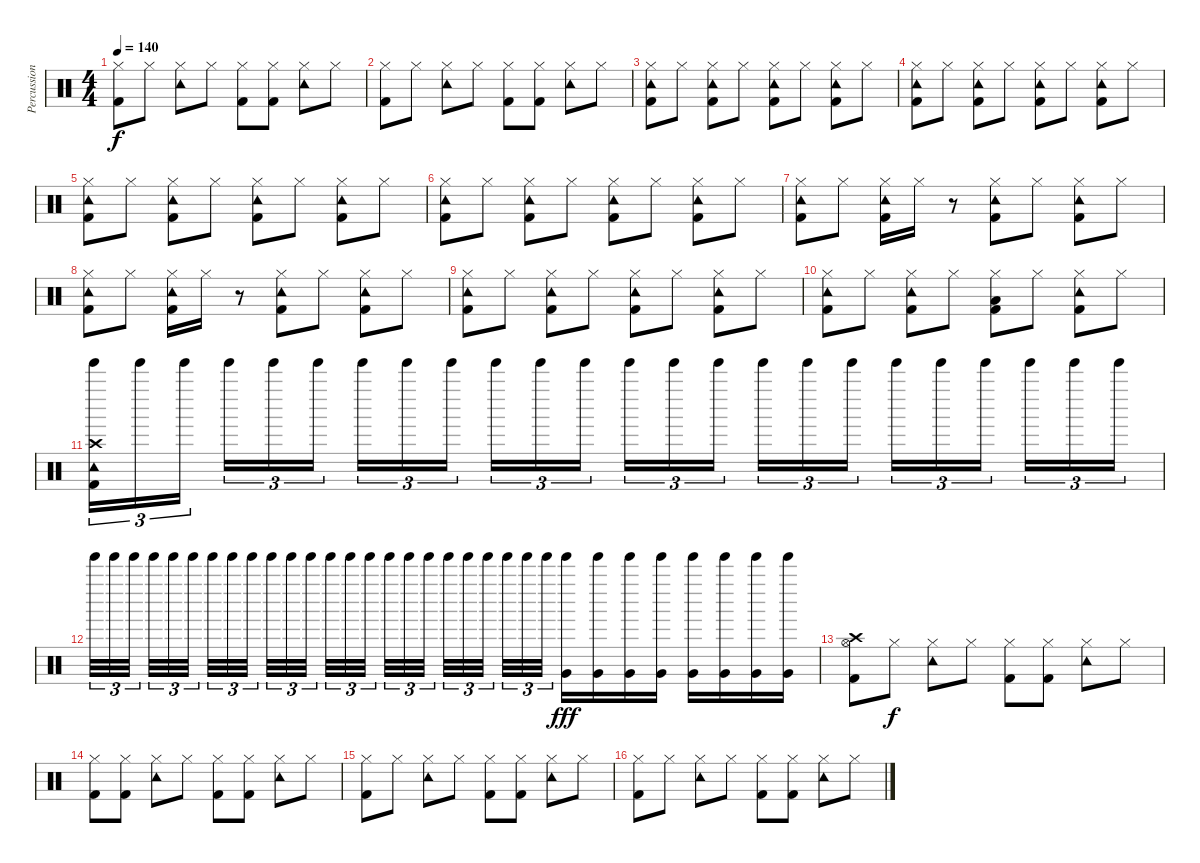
\track ("Percussion" "Percussion") {instrument percussion}
\staff {score}
\articulation defaults
\ts (4 4)
\tempo 140
\clef neutral
\ks c
("Hi-Hat (closed)" "Kick (hit) 2").8{dy f} "Hi-Hat (closed)".8 ("Hi-Hat (closed)" "Tambourine (hit)").8 "Hi-Hat (closed)".8 ("Hi-Hat (closed)" "Kick (hit) 2").8 ("Hi-Hat (closed)" "Kick (hit) 2").8 ("Hi-Hat (closed)" "Tambourine (hit)").8 "Hi-Hat (closed)".8 |
("Hi-Hat (closed)" "Kick (hit) 2").8 "Hi-Hat (closed)".8 ("Hi-Hat (closed)" "Tambourine (hit)").8 "Hi-Hat (closed)".8 ("Hi-Hat (closed)" "Kick (hit) 2").8 ("Hi-Hat (closed)" "Kick (hit) 2").8 ("Hi-Hat (closed)" "Tambourine (hit)").8 "Hi-Hat (closed)".8 |
("Hi-Hat (closed)" "Tambourine (hit)" "Kick (hit) 2").8 "Hi-Hat (closed)".8 ("Hi-Hat (closed)" "Tambourine (hit)" "Kick (hit) 2").8 "Hi-Hat (closed)".8 ("Hi-Hat (closed)" "Tambourine (hit)" "Kick (hit) 2").8 "Hi-Hat (closed)".8 ("Hi-Hat (closed)" "Tambourine (hit)" "Kick (hit) 2").8 "Hi-Hat (closed)".8 |
("Hi-Hat (closed)" "Tambourine (hit)" "Kick (hit) 2").8 "Hi-Hat (closed)".8 ("Hi-Hat (closed)" "Tambourine (hit)" "Kick (hit) 2").8 "Hi-Hat (closed)".8 ("Hi-Hat (closed)" "Tambourine (hit)" "Kick (hit) 2").8 "Hi-Hat (closed)".8 ("Hi-Hat (closed)" "Tambourine (hit)" "Kick (hit) 2").8 "Hi-Hat (closed)".8 |
("Hi-Hat (closed)" "Tambourine (hit)" "Kick (hit) 2").8 "Hi-Hat (closed)".8 ("Hi-Hat (closed)" "Tambourine (hit)" "Kick (hit) 2").8 "Hi-Hat (closed)".8 ("Hi-Hat (closed)" "Tambourine (hit)" "Kick (hit) 2").8 "Hi-Hat (closed)".8 ("Hi-Hat (closed)" "Tambourine (hit)" "Kick (hit) 2").8 "Hi-Hat (closed)".8 |
("Hi-Hat (closed)" "Tambourine (hit)" "Kick (hit) 2").8 "Hi-Hat (closed)".8 ("Hi-Hat (closed)" "Tambourine (hit)" "Kick (hit) 2").8 "Hi-Hat (closed)".8 ("Hi-Hat (closed)" "Tambourine (hit)" "Kick (hit) 2").8 "Hi-Hat (closed)".8 ("Hi-Hat (closed)" "Tambourine (hit)" "Kick (hit) 2").8 "Hi-Hat (closed)".8 |
("Hi-Hat (closed)" "Tambourine (hit)" "Kick (hit) 2").8 "Hi-Hat (closed)".8 ("Hi-Hat (closed)" "Tambourine (hit)" "Kick (hit) 2").16 "Hi-Hat (closed)".16 r.8 ("Hi-Hat (closed)" "Tambourine (hit)" "Kick (hit) 2").8 "Hi-Hat (closed)".8 ("Hi-Hat (closed)" "Tambourine (hit)" "Kick (hit) 2").8 "Hi-Hat (closed)".8 |
("Hi-Hat (closed)" "Tambourine (hit)" "Kick (hit) 2").8 "Hi-Hat (closed)".8 ("Hi-Hat (closed)" "Tambourine (hit)" "Kick (hit) 2").16 "Hi-Hat (closed)".16 r.8 ("Hi-Hat (closed)" "Tambourine (hit)" "Kick (hit) 2").8 "Hi-Hat (closed)".8 ("Hi-Hat (closed)" "Tambourine (hit)" "Kick (hit) 2").8 "Hi-Hat (closed)".8 |
("Hi-Hat (closed)" "Tambourine (hit)" "Kick (hit) 2").8 "Hi-Hat (closed)".8 ("Hi-Hat (closed)" "Tambourine (hit)" "Kick (hit) 2").8 "Hi-Hat (closed)".8 ("Hi-Hat (closed)" "Tambourine (hit)" "Kick (hit) 2").8 "Hi-Hat (closed)".8 ("Hi-Hat (closed)" "Tambourine (hit)" "Kick (hit) 2").8 "Hi-Hat (closed)".8 |
("Hi-Hat (closed)" "Tambourine (hit)" "Kick (hit) 2").8 "Hi-Hat (closed)".8 ("Hi-Hat (closed)" "Tambourine (hit)" "Kick (hit) 2").8 "Hi-Hat (closed)".8 ("Hi-Hat (closed)" "Low Tom (hit)" "Kick (hit) 2").8 "Hi-Hat (closed)".8 ("Hi-Hat (closed)" "Tambourine (hit)" "Kick (hit) 2").8 "Hi-Hat (closed)".8 |
("Tinkle Bell (hit)" "Crash high (hit)" "Tambourine (hit)" "Kick (hit) 2").16{tu (3 2) volume 5} "Tinkle Bell (hit)".16{tu (3 2) volume 16} "Tinkle Bell (hit)".16{tu (3 2)} "Tinkle Bell (hit)".16{tu (3 2)} "Tinkle Bell (hit)".16{tu (3 2)} "Tinkle Bell (hit)".16{tu (3 2)} "Tinkle Bell (hit)".16{tu (3 2)} "Tinkle Bell (hit)".16{tu (3 2)} "Tinkle Bell (hit)".16{tu (3 2)} "Tinkle Bell (hit)".16{tu (3 2)} "Tinkle Bell (hit)".16{tu (3 2)} "Tinkle Bell (hit)".16{tu (3 2)} "Tinkle Bell (hit)".16{tu (3 2)} "Tinkle Bell (hit)".16{tu (3 2)} "Tinkle Bell (hit)".16{tu (3 2)} "Tinkle Bell (hit)".16{tu (3 2)} "Tinkle Bell (hit)".16{tu (3 2)} "Tinkle Bell (hit)".16{tu (3 2)} "Tinkle Bell (hit)".16{tu (3 2)} "Tinkle Bell (hit)".16{tu (3 2)} "Tinkle Bell (hit)".16{tu (3 2)} "Tinkle Bell (hit)".16{tu (3 2)} "Tinkle Bell (hit)".16{tu (3 2)} "Tinkle Bell (hit)".16{tu (3 2)} |
"Tinkle Bell (hit)".32{tu (3 2)} "Tinkle Bell (hit)".32{tu (3 2)} "Tinkle Bell (hit)".32{tu (3 2)} "Tinkle Bell (hit)".32{tu (3 2)} "Tinkle Bell (hit)".32{tu (3 2)} "Tinkle Bell (hit)".32{tu (3 2)} "Tinkle Bell (hit)".32{tu (3 2)} "Tinkle Bell (hit)".32{tu (3 2)} "Tinkle Bell (hit)".32{tu (3 2)} "Tinkle Bell (hit)".32{tu (3 2)} "Tinkle Bell (hit)".32{tu (3 2)} "Tinkle Bell (hit)".32{tu (3 2)} "Tinkle Bell (hit)".32{tu (3 2)} "Tinkle Bell (hit)".32{tu (3 2)} "Tinkle Bell (hit)".32{tu (3 2)} "Tinkle Bell (hit)".32{tu (3 2)} "Tinkle Bell (hit)".32{tu (3 2)} "Tinkle Bell (hit)".32{tu (3 2)} "Tinkle Bell (hit)".32{tu (3 2)} "Tinkle Bell (hit)".32{tu (3 2)} "Tinkle Bell (hit)".32{tu (3 2)} "Tinkle Bell (hit)".32{tu (3 2)} "Tinkle Bell (hit)".32{tu (3 2)} "Tinkle Bell (hit)".32{tu (3 2)} ("Tinkle Bell (hit)" "Very Low Tom (hit)").16{dy fff} ("Tinkle Bell (hit)" "Very Low Tom (hit)").16 ("Tinkle Bell (hit)" "Very Low Tom (hit)").16 ("Tinkle Bell (hit)" "Very Low Tom (hit)").16 ("Tinkle Bell (hit)" "Very Low Tom (hit)").16 ("Tinkle Bell (hit)" "Very Low Tom (hit)").16 ("Tinkle Bell (hit)" "Very Low Tom (hit)").16 ("Tinkle Bell (hit)" "Very Low Tom (hit)").16 |
("Hi-Hat (open)" "Crash high (hit)" "Kick (hit) 2").8{volume 10} "Hi-Hat (closed)".8{dy f} ("Hi-Hat (closed)" "Tambourine (hit)").8 "Hi-Hat (closed)".8 ("Hi-Hat (closed)" "Kick (hit) 2").8 ("Hi-Hat (closed)" "Kick (hit) 2").8 ("Hi-Hat (closed)" "Tambourine (hit)").8 "Hi-Hat (closed)".8 |
("Hi-Hat (closed)" "Kick (hit) 2").8 ("Hi-Hat (closed)" "Kick (hit) 2").8 ("Hi-Hat (closed)" "Tambourine (hit)").8 "Hi-Hat (closed)".8 ("Hi-Hat (closed)" "Kick (hit) 2").8 ("Hi-Hat (closed)" "Kick (hit) 2").8 ("Hi-Hat (closed)" "Tambourine (hit)").8 "Hi-Hat (closed)".8 |
("Hi-Hat (closed)" "Kick (hit) 2").8 "Hi-Hat (closed)".8 ("Hi-Hat (closed)" "Tambourine (hit)").8 "Hi-Hat (closed)".8 ("Hi-Hat (closed)" "Kick (hit) 2").8 ("Hi-Hat (closed)" "Kick (hit) 2").8 ("Hi-Hat (closed)" "Tambourine (hit)").8 "Hi-Hat (closed)".8 |
("Hi-Hat (closed)" "Kick (hit) 2").8 "Hi-Hat (closed)".8 ("Hi-Hat (closed)" "Tambourine (hit)").8 "Hi-Hat (closed)".8 ("Hi-Hat (closed)" "Kick (hit) 2").8 ("Hi-Hat (closed)" "Kick (hit) 2").8 ("Hi-Hat (closed)" "Tambourine (hit)").8 "Hi-Hat (closed)".8
